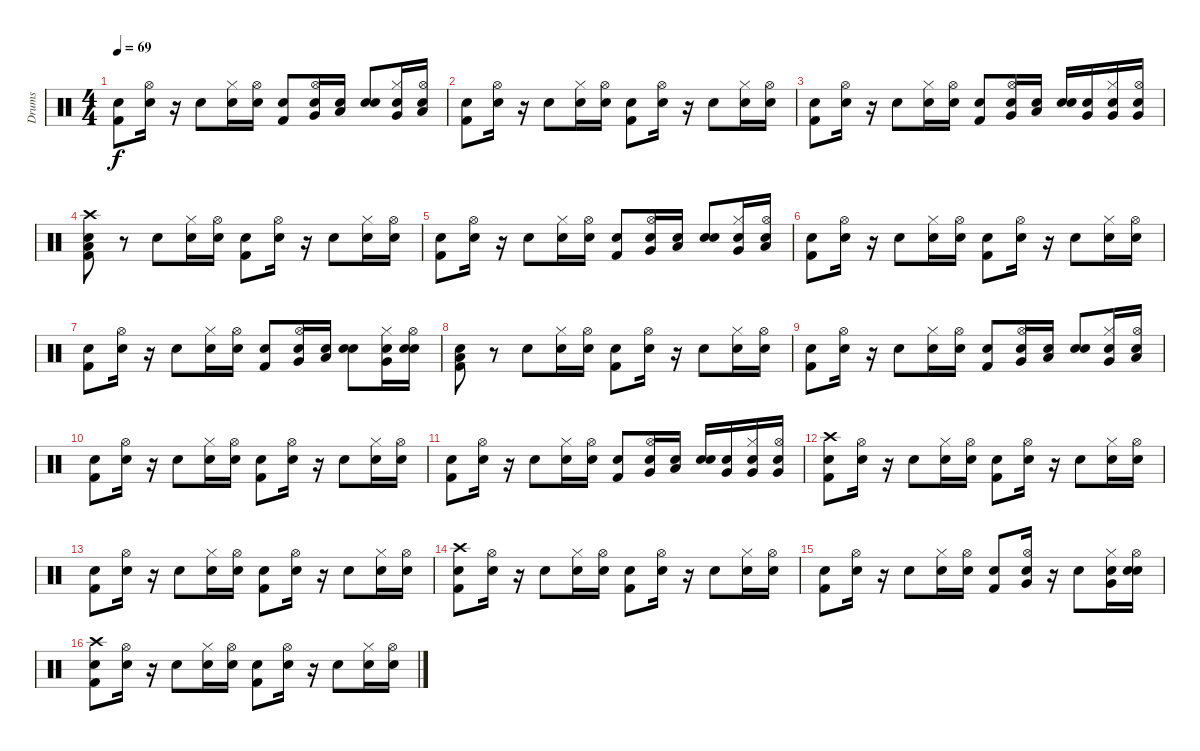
\track ("Drums" "Drums") {instrument percussion}
\staff {score}
\articulation defaults
\ts (4 4)
\tempo 69
\clef neutral
\ks c
("Snare (hit)" "Kick (hit) 2").8{dy f} ("Snare (hit)" "Hi-Hat (open)").16 r.16 "Snare (hit) 2".8 ("Snare (hit)" "Hi-Hat (closed)").16 ("Snare (hit)" "Hi-Hat (open)").16 ("Snare (hit)" "Kick (hit) 2").8 ("Snare (hit)" "Very Low Tom (hit)" "Hi-Hat (open)").16 ("Snare (hit)" "Low Floor Tom (hit)").16 ("Snare (hit)" "Snare (hit) 2").8 ("Snare (hit)" "Very Low Tom (hit)" "Hi-Hat (closed)").16 ("Snare (hit)" "Low Tom (hit)" "Hi-Hat (open)").16 |
("Snare (hit)" "Kick (hit) 2").8 ("Snare (hit)" "Hi-Hat (open)").16 r.16 "Snare (hit) 2".8 ("Snare (hit)" "Hi-Hat (closed)").16 ("Snare (hit)" "Hi-Hat (open)").16 ("Snare (hit)" "Kick (hit) 2").8 ("Snare (hit)" "Hi-Hat (open)").16 r.16 "Snare (hit) 2".8 ("Snare (hit)" "Hi-Hat (closed)").16 ("Snare (hit)" "Hi-Hat (open)").16 |
("Snare (hit)" "Kick (hit) 2").8 ("Snare (hit)" "Hi-Hat (open)").16 r.16 "Snare (hit) 2".8 ("Snare (hit)" "Hi-Hat (closed)").16 ("Snare (hit)" "Hi-Hat (open)").16 ("Snare (hit)" "Kick (hit) 2").8 ("Snare (hit)" "Very Low Tom (hit)" "Hi-Hat (open)").16 ("Snare (hit)" "Low Floor Tom (hit)").16 ("Snare (hit)" "Snare (hit) 2").16 ("Snare (hit)" "Very Low Tom (hit)").16 ("Snare (hit)" "Very Low Tom (hit)" "Hi-Hat (closed)").16 ("Snare (hit)" "Very Low Tom (hit)" "Hi-Hat (open)").16 |
("Snare (hit)" "Crash high (hit)" "Low Floor Tom (hit)" "Kick (hit) 2").8 r.8 "Snare (hit) 2".8 ("Snare (hit)" "Hi-Hat (closed)").16 ("Snare (hit)" "Hi-Hat (open)").16 ("Snare (hit)" "Kick (hit) 2").8 ("Snare (hit)" "Hi-Hat (open)").16 r.16 "Snare (hit) 2".8 ("Snare (hit)" "Hi-Hat (closed)").16 ("Snare (hit)" "Hi-Hat (open)").16 |
("Snare (hit)" "Kick (hit) 2").8 ("Snare (hit)" "Hi-Hat (open)").16 r.16 "Snare (hit) 2".8 ("Snare (hit)" "Hi-Hat (closed)").16 ("Snare (hit)" "Hi-Hat (open)").16 ("Snare (hit)" "Kick (hit) 2").8 ("Snare (hit)" "Very Low Tom (hit)" "Hi-Hat (open)").16 ("Snare (hit)" "Low Floor Tom (hit)").16 ("Snare (hit)" "Snare (hit) 2").8 ("Snare (hit)" "Very Low Tom (hit)" "Hi-Hat (closed)").16 ("Snare (hit)" "Low Tom (hit)" "Hi-Hat (open)").16 |
("Snare (hit)" "Kick (hit) 2").8 ("Snare (hit)" "Hi-Hat (open)").16 r.16 "Snare (hit) 2".8 ("Snare (hit)" "Hi-Hat (closed)").16 ("Snare (hit)" "Hi-Hat (open)").16 ("Snare (hit)" "Kick (hit) 2").8 ("Snare (hit)" "Hi-Hat (open)").16 r.16 "Snare (hit) 2".8 ("Snare (hit)" "Hi-Hat (closed)").16 ("Snare (hit)" "Hi-Hat (open)").16 |
("Snare (hit)" "Kick (hit) 2").8 ("Snare (hit)" "Hi-Hat (open)").16 r.16 "Snare (hit) 2".8 ("Snare (hit)" "Hi-Hat (closed)").16 ("Snare (hit)" "Hi-Hat (open)").16 ("Snare (hit)" "Kick (hit) 2").8 ("Snare (hit)" "Very Low Tom (hit)" "Hi-Hat (open)").16 ("Snare (hit)" "Low Floor Tom (hit)").16 ("Snare (hit)" "Snare (hit) 2").8 ("Snare (hit)" "Very Low Tom (hit)" "Hi-Hat (closed)").16 ("Snare (hit)" "Snare (hit) 2" "Hi-Hat (open)").16 |
("Snare (hit)" "Low Floor Tom (hit)" "Kick (hit) 2").8 r.8 "Snare (hit) 2".8 ("Snare (hit)" "Hi-Hat (closed)").16 ("Snare (hit)" "Hi-Hat (open)").16 ("Snare (hit)" "Kick (hit) 2").8 ("Snare (hit)" "Hi-Hat (open)").16 r.16 "Snare (hit) 2".8 ("Snare (hit)" "Hi-Hat (closed)").16 ("Snare (hit)" "Hi-Hat (open)").16 |
("Snare (hit)" "Kick (hit) 2").8 ("Snare (hit)" "Hi-Hat (open)").16 r.16 "Snare (hit) 2".8 ("Snare (hit)" "Hi-Hat (closed)").16 ("Snare (hit)" "Hi-Hat (open)").16 ("Snare (hit)" "Kick (hit) 2").8 ("Snare (hit)" "Very Low Tom (hit)" "Hi-Hat (open)").16 ("Snare (hit)" "Low Floor Tom (hit)").16 ("Snare (hit)" "Snare (hit) 2").8 ("Snare (hit)" "Very Low Tom (hit)" "Hi-Hat (closed)").16 ("Snare (hit)" "Low Tom (hit)" "Hi-Hat (open)").16 |
("Snare (hit)" "Kick (hit) 2").8 ("Snare (hit)" "Hi-Hat (open)").16 r.16 "Snare (hit) 2".8 ("Snare (hit)" "Hi-Hat (closed)").16 ("Snare (hit)" "Hi-Hat (open)").16 ("Snare (hit)" "Kick (hit) 2").8 ("Snare (hit)" "Hi-Hat (open)").16 r.16 "Snare (hit) 2".8 ("Snare (hit)" "Hi-Hat (closed)").16 ("Snare (hit)" "Hi-Hat (open)").16 |
("Snare (hit)" "Kick (hit) 2").8 ("Snare (hit)" "Hi-Hat (open)").16 r.16 "Snare (hit) 2".8 ("Snare (hit)" "Hi-Hat (closed)").16 ("Snare (hit)" "Hi-Hat (open)").16 ("Snare (hit)" "Kick (hit) 2").8 ("Snare (hit)" "Very Low Tom (hit)" "Hi-Hat (open)").16 ("Snare (hit)" "Low Floor Tom (hit)").16 ("Snare (hit)" "Snare (hit) 2").16 ("Snare (hit)" "Very Low Tom (hit)").16 ("Snare (hit)" "Very Low Tom (hit)" "Hi-Hat (closed)").16 ("Snare (hit)" "Very Low Tom (hit)" "Hi-Hat (open)").16 |
("Snare (hit)" "Crash high (hit)" "Kick (hit) 2").8 ("Snare (hit)" "Hi-Hat (open)").16 r.16 "Snare (hit) 2".8 ("Snare (hit)" "Hi-Hat (closed)").16 ("Snare (hit)" "Hi-Hat (open)").16 ("Snare (hit)" "Kick (hit) 2").8 ("Snare (hit)" "Hi-Hat (open)").16 r.16 "Snare (hit) 2".8 ("Snare (hit)" "Hi-Hat (closed)").16 ("Snare (hit)" "Hi-Hat (open)").16 |
("Snare (hit)" "Kick (hit) 2").8 ("Snare (hit)" "Hi-Hat (open)").16 r.16 "Snare (hit) 2".8 ("Snare (hit)" "Hi-Hat (closed)").16 ("Snare (hit)" "Hi-Hat (open)").16 ("Snare (hit)" "Kick (hit) 2").8 ("Snare (hit)" "Hi-Hat (open)").16 r.16 "Snare (hit) 2".8 ("Snare (hit)" "Hi-Hat (closed)").16 ("Snare (hit)" "Hi-Hat (open)").16 |
("Snare (hit)" "Crash high (hit)" "Kick (hit) 2").8 ("Snare (hit)" "Hi-Hat (open)").16 r.16 "Snare (hit) 2".8 ("Snare (hit)" "Hi-Hat (closed)").16 ("Snare (hit)" "Hi-Hat (open)").16 ("Snare (hit)" "Kick (hit) 2").8 ("Snare (hit)" "Hi-Hat (open)").16 r.16 "Snare (hit) 2".8 ("Snare (hit)" "Hi-Hat (closed)").16 ("Snare (hit)" "Hi-Hat (open)").16 |
("Snare (hit)" "Kick (hit) 2").8 ("Snare (hit)" "Hi-Hat (open)").16 r.16 "Snare (hit) 2".8 ("Snare (hit)" "Hi-Hat (closed)").16 ("Snare (hit)" "Hi-Hat (open)").16 ("Snare (hit)" "Kick (hit) 2").8 ("Snare (hit)" "Very Low Tom (hit)" "Hi-Hat (open)").16 r.16 "Snare (hit) 2".8 ("Snare (hit)" "Very Low Tom (hit)" "Hi-Hat (closed)").16 ("Snare (hit)" "Snare (hit) 2" "Hi-Hat (open)").16 |
("Snare (hit)" "Crash high (hit)" "Kick (hit) 2").8 ("Snare (hit)" "Hi-Hat (open)").16 r.16 "Snare (hit) 2".8 ("Snare (hit)" "Hi-Hat (closed)").16 ("Snare (hit)" "Hi-Hat (open)").16 ("Snare (hit)" "Kick (hit) 2").8 ("Snare (hit)" "Hi-Hat (open)").16 r.16 "Snare (hit) 2".8 ("Snare (hit)" "Hi-Hat (closed)").16 ("Snare (hit)" "Hi-Hat (open)").16
